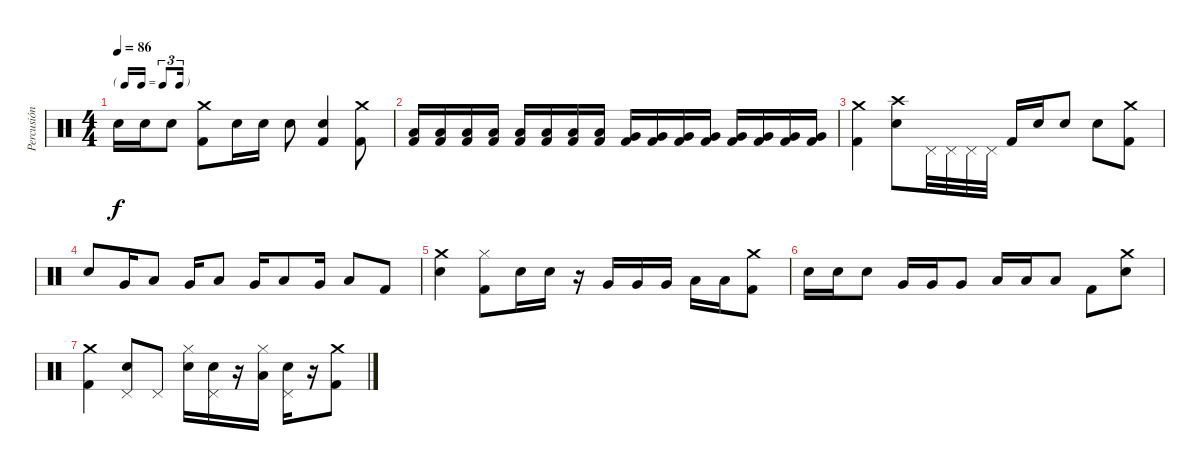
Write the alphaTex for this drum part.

\track ("Percusión" "Percusión") {instrument percussion}
\staff {score}
\articulation defaults
\ts (4 4)
\tf triplet16th
\tempo 86
\clef neutral
\ks c "Snare (hit) 2".16{dy f} "Snare (hit) 2".16 "Snare (hit) 2".8
("Crash medium (hit)" "Kick (hit) 2").8 "Snare (hit) 2".16 "Snare (hit) 2".16 "Snare (hit) 2".8 ("Snare (hit) 2" "Kick (hit) 2").4 ("Crash medium (hit)" "Kick (hit) 2").8 |
("Kick (hit) 2" "Low Floor Tom (hit)").16 ("Kick (hit) 2" "Low Floor Tom (hit)").16 ("Kick (hit) 2" "Low Floor Tom (hit)").16 ("Kick (hit) 2" "Low Floor Tom (hit)").16 ("Kick (hit) 2" "Low Floor Tom (hit)").16 ("Kick (hit) 2" "Low Floor Tom (hit)").16 ("Kick (hit) 2" "Low Floor Tom (hit)").16 ("Kick (hit) 2" "Low Floor Tom (hit)").16 ("Kick (hit) 2" "Very Low Tom (hit)").16 ("Kick (hit) 2" "Very Low Tom (hit)").16 ("Kick (hit) 2" "Very Low Tom (hit)").16 ("Kick (hit) 2" "Very Low Tom (hit)").16 ("Kick (hit) 2" "Very Low Tom (hit)").16 ("Kick (hit) 2" "Very Low Tom (hit)").16 ("Kick (hit) 2" "Very Low Tom (hit)").16 ("Kick (hit) 2" "Very Low Tom (hit)").16 |
("Crash medium (hit)" "Kick (hit) 2").4 ("Crash high (hit)" "Snare (hit) 2").8 "Pedal Hi-Hat (hit)".32 "Pedal Hi-Hat (hit)".32 "Pedal Hi-Hat (hit)".32 "Pedal Hi-Hat (hit)".32 "Kick (hit) 2".16 "Snare (hit) 2".16 "Snare (hit) 2".8 "Snare (hit) 2".8 ("Crash medium (hit)" "Kick (hit) 2").8 |
"Snare (hit) 2".8 "Very Low Tom (hit)".16 "Low Floor Tom (hit)".8 "Very Low Tom (hit)".16 "Low Floor Tom (hit)".8 "Very Low Tom (hit)".16 "Low Floor Tom (hit)".8 "Very Low Tom (hit)".16 "Low Floor Tom (hit)".8 "Kick (hit) 2".8 |
("Crash medium (hit)" "Snare (hit) 2").4 ("Hi-Hat (closed)" "Kick (hit) 2").8 "Snare (hit) 2".16 "Snare (hit) 2".16 r.16 "Very Low Tom (hit)".16 "Very Low Tom (hit)".16 "Very Low Tom (hit)".16 "Low Tom (hit)".16 "Low Tom (hit)".16 ("Crash medium (hit)" "Kick (hit) 2").8 |
"Snare (hit) 2".16 "Snare (hit) 2".16 "Snare (hit) 2".8 "Very Low Tom (hit)".16 "Very Low Tom (hit)".16 "Very Low Tom (hit)".8 "Low Floor Tom (hit)".16 "Low Floor Tom (hit)".16 "Low Floor Tom (hit)".8 "Kick (hit) 2".8 ("Crash medium (hit)" "Snare (hit) 2").8 |
("Crash medium (hit)" "Kick (hit) 2").4 ("Pedal Hi-Hat (hit)" "Snare (hit) 2").8 "Pedal Hi-Hat (hit)".8 ("Hi-Hat (closed)" "Snare (hit) 2").16 ("Pedal Hi-Hat (hit)" "Snare (hit) 2").16 r.16 ("Hi-Hat (closed)" "Low Floor Tom (hit)").16 ("Pedal Hi-Hat (hit)" "Snare (hit) 2").16 r.16 ("Crash medium (hit)" "Kick (hit) 2").8
